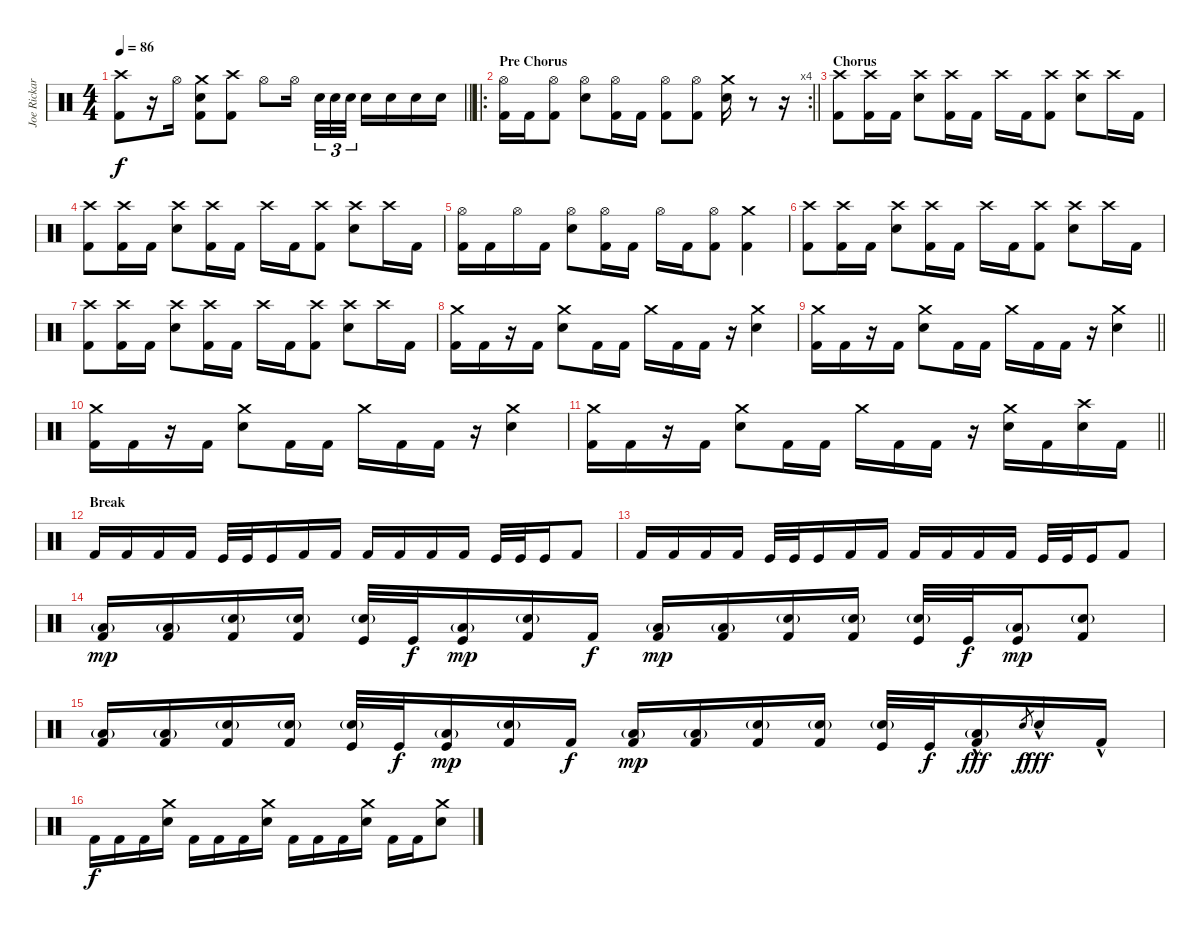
\track ("Joe Rickard" "Joe Rickar") {instrument percussion}
\staff {score}
\articulation defaults
\ts (4 4)
\tempo 86
\clef neutral
\barLineRight lightlight
\ks c
("Crash high (hit)" "Kick (hit) 2").8{dy f} r.16 "Hi-Hat (open)".16 ("Crash medium (hit)" "Electric Snare (hit)" "Kick (hit) 2").8 ("Crash high (hit)" "Kick (hit) 2").8 "Hi-Hat (open)".8 "Hi-Hat (open)".16{beam splitsecondary} "Electric Snare (hit)".32{tu (3 2)} "Electric Snare (hit)".32{tu (3 2)} "Electric Snare (hit)".32{tu (3 2)} "Electric Snare (hit)".16 "Electric Snare (hit)".16 "Electric Snare (hit)".16 "Electric Snare (hit)".16 |
\ro
\rc 4
\section ("" "Pre Chorus")
\barLineRight lightlight
("Hi-Hat (open)" "Kick (hit) 2").16 "Kick (hit) 2".16 ("Hi-Hat (open)" "Kick (hit) 2").8 ("Hi-Hat (open)" "Electric Snare (hit)").8 ("Hi-Hat (open)" "Kick (hit) 2").16 "Kick (hit) 2".16 ("Hi-Hat (open)" "Kick (hit) 2").8 ("Hi-Hat (open)" "Kick (hit) 2").8 ("Crash medium (hit)" "Electric Snare (hit)").16 r.8 r.16 |
\section ("" "Chorus")
("Crash high (hit)" "Kick (hit) 2").8 ("Crash high (hit)" "Kick (hit) 2").16 "Kick (hit) 2".16 ("Crash high (hit)" "Electric Snare (hit)").8 ("Crash high (hit)" "Kick (hit) 2").16 "Kick (hit) 2".16 "Crash high (hit)".16 "Kick (hit) 2".16 ("Crash high (hit)" "Kick (hit) 2").8 ("Crash high (hit)" "Electric Snare (hit)").8 "Crash high (hit)".16 "Kick (hit) 2".16 |
("Crash high (hit)" "Kick (hit) 2").8 ("Crash high (hit)" "Kick (hit) 2").16 "Kick (hit) 2".16 ("Crash high (hit)" "Electric Snare (hit)").8 ("Crash high (hit)" "Kick (hit) 2").16 "Kick (hit) 2".16 "Crash high (hit)".16 "Kick (hit) 2".16 ("Crash high (hit)" "Kick (hit) 2").8 ("Crash high (hit)" "Electric Snare (hit)").8 "Crash high (hit)".16 "Kick (hit) 2".16 |
("Hi-Hat (open)" "Kick (hit) 2").16 "Kick (hit) 2".16 "Hi-Hat (open)".16 "Kick (hit) 2".16 ("Hi-Hat (open)" "Electric Snare (hit)").8 ("Hi-Hat (open)" "Kick (hit) 2").16 "Kick (hit) 2".16 "Hi-Hat (open)".16 "Kick (hit) 2".16 ("Hi-Hat (open)" "Kick (hit) 2").8 ("Crash medium (hit)" "Kick (hit) 2").4 |
("Crash high (hit)" "Kick (hit) 2").8 ("Crash high (hit)" "Kick (hit) 2").16 "Kick (hit) 2".16 ("Crash high (hit)" "Electric Snare (hit)").8 ("Crash high (hit)" "Kick (hit) 2").16 "Kick (hit) 2".16 "Crash high (hit)".16 "Kick (hit) 2".16 ("Crash high (hit)" "Kick (hit) 2").8 ("Crash high (hit)" "Electric Snare (hit)").8 "Crash high (hit)".16 "Kick (hit) 2".16 |
("Crash high (hit)" "Kick (hit) 2").8 ("Crash high (hit)" "Kick (hit) 2").16 "Kick (hit) 2".16 ("Crash high (hit)" "Electric Snare (hit)").8 ("Crash high (hit)" "Kick (hit) 2").16 "Kick (hit) 2".16 "Crash high (hit)".16 "Kick (hit) 2".16 ("Crash high (hit)" "Kick (hit) 2").8 ("Crash high (hit)" "Electric Snare (hit)").8 "Crash high (hit)".16 "Kick (hit) 2".16 |
("Crash medium (hit)" "Kick (hit) 2").16 "Kick (hit) 2".16 r.16 "Kick (hit) 2".16 ("Crash medium (hit)" "Electric Snare (hit)").8 "Kick (hit) 2".16 "Kick (hit) 2".16 "Crash medium (hit)".16 "Kick (hit) 2".16 "Kick (hit) 2".16 r.16 ("Crash medium (hit)" "Electric Snare (hit)").4 |
\barLineRight lightlight
("Crash medium (hit)" "Kick (hit) 2").16 "Kick (hit) 2".16 r.16 "Kick (hit) 2".16 ("Crash medium (hit)" "Electric Snare (hit)").8 "Kick (hit) 2".16 "Kick (hit) 2".16 "Crash medium (hit)".16 "Kick (hit) 2".16 "Kick (hit) 2".16 r.16 ("Crash medium (hit)" "Electric Snare (hit)").4 |
("Crash medium (hit)" "Kick (hit) 2").16 "Kick (hit) 2".16 r.16 "Kick (hit) 2".16 ("Crash medium (hit)" "Electric Snare (hit)").8 "Kick (hit) 2".16 "Kick (hit) 2".16 "Crash medium (hit)".16 "Kick (hit) 2".16 "Kick (hit) 2".16 r.16 ("Crash medium (hit)" "Electric Snare (hit)").4 |
\barLineRight lightlight
("Crash medium (hit)" "Kick (hit) 2").16 "Kick (hit) 2".16 r.16 "Kick (hit) 2".16 ("Crash medium (hit)" "Electric Snare (hit)").8 "Kick (hit) 2".16 "Kick (hit) 2".16 "Crash medium (hit)".16 "Kick (hit) 2".16 "Kick (hit) 2".16 r.16 ("Crash medium (hit)" "Electric Snare (hit)").16 "Kick (hit) 2".16 ("Crash high (hit)" "Electric Snare (hit)").16 "Kick (hit) 2".16 |
\section ("" "Break")
"Kick (hit) 2".16 "Kick (hit) 2".16 "Kick (hit) 2".16 "Kick (hit) 2".16 "Kick (hit)".32 "Kick (hit)".32 "Kick (hit)".16 "Kick (hit) 2".16 "Kick (hit) 2".16 "Kick (hit) 2".16 "Kick (hit) 2".16 "Kick (hit) 2".16 "Kick (hit) 2".16 "Kick (hit)".32 "Kick (hit)".32 "Kick (hit)".16 "Kick (hit) 2".8 |
"Kick (hit) 2".16 "Kick (hit) 2".16 "Kick (hit) 2".16 "Kick (hit) 2".16 "Kick (hit)".32 "Kick (hit)".32 "Kick (hit)".16 "Kick (hit) 2".16 "Kick (hit) 2".16 "Kick (hit) 2".16 "Kick (hit) 2".16 "Kick (hit) 2".16 "Kick (hit) 2".16 "Kick (hit)".32 "Kick (hit)".32 "Kick (hit)".16 "Kick (hit) 2".8 |
("Low Floor Tom (hit)"{g} "Kick (hit) 2").16{dy mp} ("Low Floor Tom (hit)"{g} "Kick (hit) 2").16 ("Snare (hit) 2"{g} "Kick (hit) 2").16 ("Snare (hit) 2"{g} "Kick (hit) 2").16 ("Snare (hit) 2"{g} "Kick (hit)").32 "Kick (hit)".32{dy f} ("Low Floor Tom (hit)"{g} "Kick (hit)").16{dy mp} ("Snare (hit) 2"{g} "Kick (hit) 2").16 "Kick (hit) 2".16{dy f} ("Low Floor Tom (hit)"{g} "Kick (hit) 2").16{dy mp} ("Low Floor Tom (hit)"{g} "Kick (hit) 2").16 ("Snare (hit) 2"{g} "Kick (hit) 2").16 ("Snare (hit) 2"{g} "Kick (hit) 2").16 ("Snare (hit) 2"{g} "Kick (hit)").32 "Kick (hit)".32{dy f} ("Low Floor Tom (hit)"{g} "Kick (hit)").16{dy mp} ("Snare (hit) 2"{g} "Kick (hit) 2").8 |
("Low Floor Tom (hit)"{g} "Kick (hit) 2").16 ("Low Floor Tom (hit)"{g} "Kick (hit) 2").16 ("Snare (hit) 2"{g} "Kick (hit) 2").16 ("Snare (hit) 2"{g} "Kick (hit) 2").16 ("Snare (hit) 2"{g} "Kick (hit)").32 "Kick (hit)".32{dy f} ("Low Floor Tom (hit)"{g} "Kick (hit)").16{dy mp} ("Snare (hit) 2"{g} "Kick (hit) 2").16 "Kick (hit) 2".16{dy f} ("Low Floor Tom (hit)"{g} "Kick (hit) 2").16{dy mp} ("Low Floor Tom (hit)"{g} "Kick (hit) 2").16 ("Snare (hit) 2"{g} "Kick (hit) 2").16 ("Snare (hit) 2"{g} "Kick (hit) 2").16 ("Snare (hit) 2"{g} "Kick (hit)").32 "Kick (hit)".32{dy f} ("Low Floor Tom (hit)"{g} "Kick (hit) 2"{hac}).16{dy fff} "Electric Snare (hit)".8{gr dy f} "Electric Snare (hit)"{hac}.16{dy fff} "Kick (hit) 2"{hac}.16 |
"Kick (hit) 2".16{dy f} "Kick (hit) 2".16 "Kick (hit) 2".16 ("Crash medium (hit)" "Electric Snare (hit)").16 "Kick (hit) 2".16 "Kick (hit) 2".16 "Kick (hit) 2".16 ("Crash medium (hit)" "Electric Snare (hit)").16 "Kick (hit) 2".16 "Kick (hit) 2".16 "Kick (hit) 2".16 ("Crash medium (hit)" "Electric Snare (hit)").16 "Kick (hit) 2".16 "Kick (hit) 2".16 ("Crash medium (hit)" "Electric Snare (hit)").8
